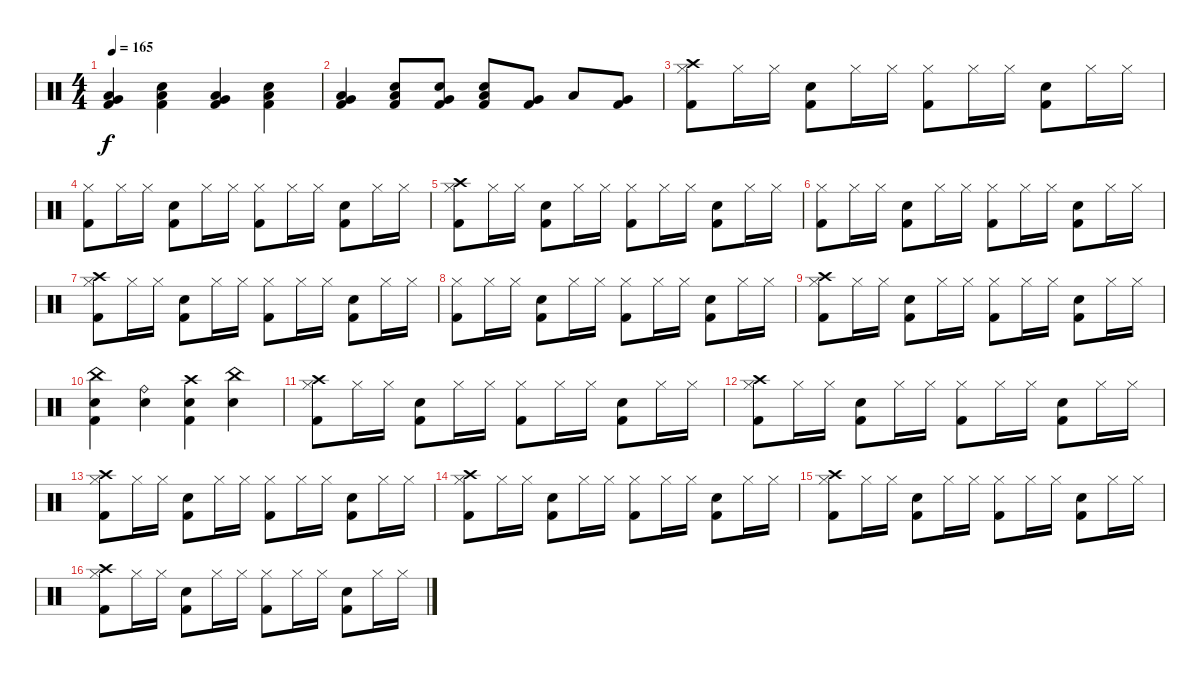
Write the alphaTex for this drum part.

\track "" {instrument percussion}
\staff {score}
\articulation defaults
\ts (4 4)
\tempo 165
\clef neutral
\ks c
("Low Tom (hit)" "Very Low Tom (hit)" "Kick (hit) 2").4{dy f} ("Low Tom (hit)" "Electric Snare (hit)" "Kick (hit) 2").4 ("Low Tom (hit)" "Very Low Tom (hit)" "Kick (hit) 2").4 ("Low Tom (hit)" "Electric Snare (hit)" "Kick (hit) 2").4 |
("Low Tom (hit)" "Very Low Tom (hit)" "Kick (hit) 2").4 ("Low Tom (hit)" "Electric Snare (hit)" "Kick (hit) 2").8 ("Very Low Tom (hit)" "Electric Snare (hit)" "Kick (hit) 2").8 ("Low Tom (hit)" "Electric Snare (hit)" "Kick (hit) 2").8 ("Very Low Tom (hit)" "Kick (hit) 2").8 "Low Tom (hit)".8 ("Very Low Tom (hit)" "Kick (hit) 2").8 |
("Crash high (hit)" "Hi-Hat (closed)" "Kick (hit) 2").8 "Hi-Hat (closed)".16 "Hi-Hat (closed)".16 ("Electric Snare (hit)" "Kick (hit) 2").8 "Hi-Hat (closed)".16 "Hi-Hat (closed)".16 ("Hi-Hat (closed)" "Kick (hit) 2").8 "Hi-Hat (closed)".16 "Hi-Hat (closed)".16 ("Electric Snare (hit)" "Kick (hit) 2").8 "Hi-Hat (closed)".16 "Hi-Hat (closed)".16 |
("Hi-Hat (closed)" "Kick (hit) 2").8 "Hi-Hat (closed)".16 "Hi-Hat (closed)".16 ("Electric Snare (hit)" "Kick (hit) 2").8 "Hi-Hat (closed)".16 "Hi-Hat (closed)".16 ("Hi-Hat (closed)" "Kick (hit) 2").8 "Hi-Hat (closed)".16 "Hi-Hat (closed)".16 ("Electric Snare (hit)" "Kick (hit) 2").8 "Hi-Hat (closed)".16 "Hi-Hat (closed)".16 |
("Crash high (hit)" "Hi-Hat (closed)" "Kick (hit) 2").8 "Hi-Hat (closed)".16 "Hi-Hat (closed)".16 ("Electric Snare (hit)" "Kick (hit) 2").8 "Hi-Hat (closed)".16 "Hi-Hat (closed)".16 ("Hi-Hat (closed)" "Kick (hit) 2").8 "Hi-Hat (closed)".16 "Hi-Hat (closed)".16 ("Electric Snare (hit)" "Kick (hit) 2").8 "Hi-Hat (closed)".16 "Hi-Hat (closed)".16 |
("Hi-Hat (closed)" "Kick (hit) 2").8 "Hi-Hat (closed)".16 "Hi-Hat (closed)".16 ("Electric Snare (hit)" "Kick (hit) 2").8 "Hi-Hat (closed)".16 "Hi-Hat (closed)".16 ("Hi-Hat (closed)" "Kick (hit) 2").8 "Hi-Hat (closed)".16 "Hi-Hat (closed)".16 ("Electric Snare (hit)" "Kick (hit) 2").8 "Hi-Hat (closed)".16 "Hi-Hat (closed)".16 |
("Crash high (hit)" "Hi-Hat (closed)" "Kick (hit) 2").8 "Hi-Hat (closed)".16 "Hi-Hat (closed)".16 ("Electric Snare (hit)" "Kick (hit) 2").8 "Hi-Hat (closed)".16 "Hi-Hat (closed)".16 ("Hi-Hat (closed)" "Kick (hit) 2").8 "Hi-Hat (closed)".16 "Hi-Hat (closed)".16 ("Electric Snare (hit)" "Kick (hit) 2").8 "Hi-Hat (closed)".16 "Hi-Hat (closed)".16 |
("Hi-Hat (closed)" "Kick (hit) 2").8 "Hi-Hat (closed)".16 "Hi-Hat (closed)".16 ("Electric Snare (hit)" "Kick (hit) 2").8 "Hi-Hat (closed)".16 "Hi-Hat (closed)".16 ("Hi-Hat (closed)" "Kick (hit) 2").8 "Hi-Hat (closed)".16 "Hi-Hat (closed)".16 ("Electric Snare (hit)" "Kick (hit) 2").8 "Hi-Hat (closed)".16 "Hi-Hat (closed)".16 |
("Crash high (hit)" "Hi-Hat (closed)" "Kick (hit) 2").8 "Hi-Hat (closed)".16 "Hi-Hat (closed)".16 ("Electric Snare (hit)" "Kick (hit) 2").8 "Hi-Hat (closed)".16 "Hi-Hat (closed)".16 ("Hi-Hat (closed)" "Kick (hit) 2").8 "Hi-Hat (closed)".16 "Hi-Hat (closed)".16 ("Electric Snare (hit)" "Kick (hit) 2").8 "Hi-Hat (closed)".16 "Hi-Hat (closed)".16 |
("China (hit)" "Electric Snare (hit)" "Kick (hit) 2").4 ("Ride (bell)" "Electric Snare (hit)").4 ("Crash high (hit)" "Electric Snare (hit)" "Kick (hit) 2").4 ("China (hit)" "Electric Snare (hit)").4 |
("Crash high (hit)" "Hi-Hat (closed)" "Kick (hit) 2").8 "Hi-Hat (closed)".16 "Hi-Hat (closed)".16 ("Electric Snare (hit)" "Kick (hit) 2").8 "Hi-Hat (closed)".16 "Hi-Hat (closed)".16 ("Hi-Hat (closed)" "Kick (hit) 2").8 "Hi-Hat (closed)".16 "Hi-Hat (closed)".16 ("Electric Snare (hit)" "Kick (hit) 2").8 "Hi-Hat (closed)".16 "Hi-Hat (closed)".16 |
("Crash high (hit)" "Hi-Hat (closed)" "Kick (hit) 2").8 "Hi-Hat (closed)".16 "Hi-Hat (closed)".16 ("Electric Snare (hit)" "Kick (hit) 2").8 "Hi-Hat (closed)".16 "Hi-Hat (closed)".16 ("Hi-Hat (closed)" "Kick (hit) 2").8 "Hi-Hat (closed)".16 "Hi-Hat (closed)".16 ("Electric Snare (hit)" "Kick (hit) 2").8 "Hi-Hat (closed)".16 "Hi-Hat (closed)".16 |
("Crash high (hit)" "Hi-Hat (closed)" "Kick (hit) 2").8 "Hi-Hat (closed)".16 "Hi-Hat (closed)".16 ("Electric Snare (hit)" "Kick (hit) 2").8 "Hi-Hat (closed)".16 "Hi-Hat (closed)".16 ("Hi-Hat (closed)" "Kick (hit) 2").8 "Hi-Hat (closed)".16 "Hi-Hat (closed)".16 ("Electric Snare (hit)" "Kick (hit) 2").8 "Hi-Hat (closed)".16 "Hi-Hat (closed)".16 |
("Crash high (hit)" "Hi-Hat (closed)" "Kick (hit) 2").8 "Hi-Hat (closed)".16 "Hi-Hat (closed)".16 ("Electric Snare (hit)" "Kick (hit) 2").8 "Hi-Hat (closed)".16 "Hi-Hat (closed)".16 ("Hi-Hat (closed)" "Kick (hit) 2").8 "Hi-Hat (closed)".16 "Hi-Hat (closed)".16 ("Electric Snare (hit)" "Kick (hit) 2").8 "Hi-Hat (closed)".16 "Hi-Hat (closed)".16 |
("Crash high (hit)" "Hi-Hat (closed)" "Kick (hit) 2").8 "Hi-Hat (closed)".16 "Hi-Hat (closed)".16 ("Electric Snare (hit)" "Kick (hit) 2").8 "Hi-Hat (closed)".16 "Hi-Hat (closed)".16 ("Hi-Hat (closed)" "Kick (hit) 2").8 "Hi-Hat (closed)".16 "Hi-Hat (closed)".16 ("Electric Snare (hit)" "Kick (hit) 2").8 "Hi-Hat (closed)".16 "Hi-Hat (closed)".16 |
("Crash high (hit)" "Hi-Hat (closed)" "Kick (hit) 2").8 "Hi-Hat (closed)".16 "Hi-Hat (closed)".16 ("Electric Snare (hit)" "Kick (hit) 2").8 "Hi-Hat (closed)".16 "Hi-Hat (closed)".16 ("Hi-Hat (closed)" "Kick (hit) 2").8 "Hi-Hat (closed)".16 "Hi-Hat (closed)".16 ("Electric Snare (hit)" "Kick (hit) 2").8 "Hi-Hat (closed)".16 "Hi-Hat (closed)".16
